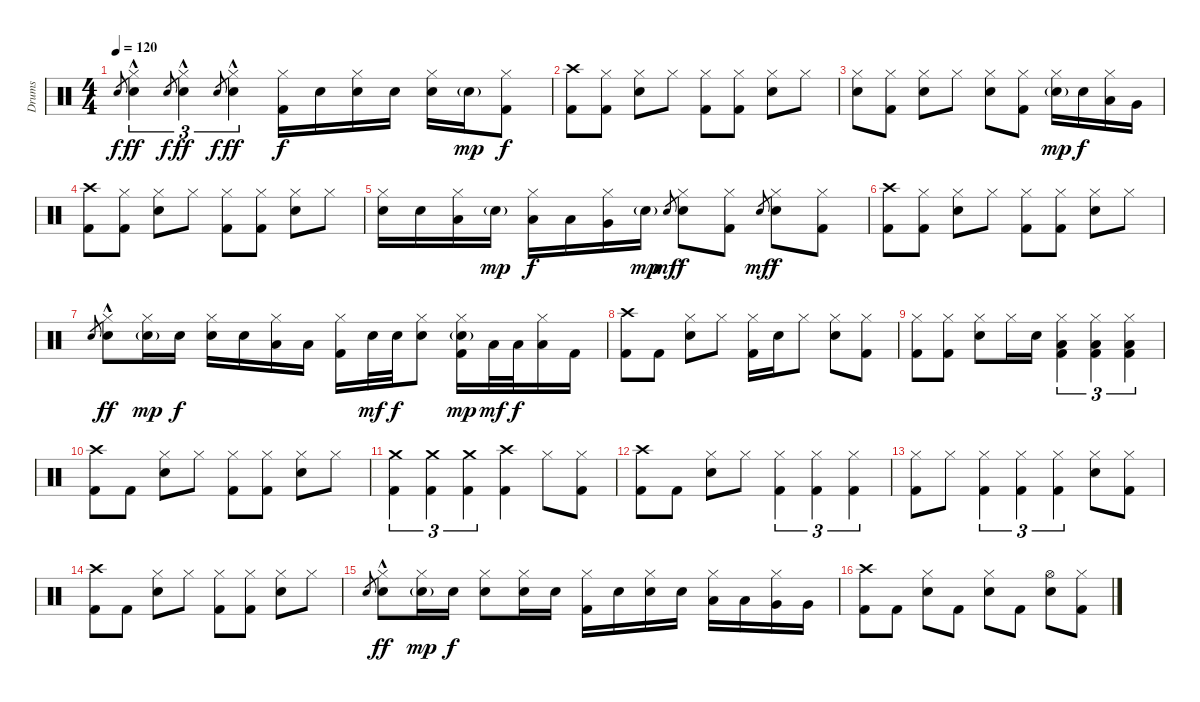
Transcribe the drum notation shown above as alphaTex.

\track ("Drums" "Drums") {instrument percussion}
\staff {score}
\articulation defaults
\ts (4 4)
\tempo 120
\clef neutral
\ks c "Electric Snare (hit)".8{gr dy f}
("Hi-Hat (closed)" "Electric Snare (hit)"{hac}).4{tu (3 2) dy ff} "Electric Snare (hit)".8{gr dy f} ("Hi-Hat (closed)" "Electric Snare (hit)"{hac}).4{tu (3 2) dy ff} "Electric Snare (hit)".8{gr dy f} ("Hi-Hat (closed)" "Electric Snare (hit)"{hac}).4{tu (3 2) dy ff} ("Hi-Hat (closed)" "Kick (hit) 2").16{dy f} "Electric Snare (hit)".16 ("Hi-Hat (closed)" "Electric Snare (hit)").16 "Electric Snare (hit)".16 ("Hi-Hat (closed)" "Electric Snare (hit)").16 "Electric Snare (hit)"{g}.16{dy mp} ("Hi-Hat (closed)" "Kick (hit) 2").8{dy f} |
("Crash high (hit)" "Kick (hit) 2").8 ("Hi-Hat (closed)" "Kick (hit) 2").8 ("Hi-Hat (closed)" "Electric Snare (hit)").8 "Hi-Hat (closed)".8 ("Hi-Hat (closed)" "Kick (hit) 2").8 ("Hi-Hat (closed)" "Kick (hit) 2").8 ("Hi-Hat (closed)" "Electric Snare (hit)").8 "Hi-Hat (closed)".8 |
("Hi-Hat (closed)" "Electric Snare (hit)").8 ("Hi-Hat (closed)" "Kick (hit) 2").8 ("Hi-Hat (closed)" "Electric Snare (hit)").8 "Hi-Hat (closed)".8 ("Hi-Hat (closed)" "Electric Snare (hit)").8 ("Hi-Hat (closed)" "Kick (hit) 2").8 ("Hi-Hat (closed)" "Electric Snare (hit)"{g}).16{dy mp} "Electric Snare (hit)".16{dy f} ("Hi-Hat (closed)" "Low Tom (hit)").16 "Very Low Tom (hit)".16 |
("Crash high (hit)" "Kick (hit) 2").8 ("Hi-Hat (closed)" "Kick (hit) 2").8 ("Hi-Hat (closed)" "Electric Snare (hit)").8 "Hi-Hat (closed)".8 ("Hi-Hat (closed)" "Kick (hit) 2").8 ("Hi-Hat (closed)" "Kick (hit) 2").8 ("Hi-Hat (closed)" "Electric Snare (hit)").8 "Hi-Hat (closed)".8 |
("Hi-Hat (closed)" "Electric Snare (hit)").16 "Electric Snare (hit)".16 ("Hi-Hat (closed)" "Low Tom (hit)").16 "Electric Snare (hit)"{g}.16{dy mp} ("Hi-Hat (closed)" "Low Tom (hit)").16{dy f} "Low Tom (hit)".16 ("Hi-Hat (closed)" "Very Low Tom (hit)").16 "Electric Snare (hit)"{g}.16{dy mp} "Electric Snare (hit)".8{gr dy mf} ("Hi-Hat (closed)" "Electric Snare (hit)").8{dy f} ("Hi-Hat (closed)" "Kick (hit) 2").8 "Electric Snare (hit)".8{gr dy mf} ("Hi-Hat (closed)" "Electric Snare (hit)").8{dy f} ("Hi-Hat (closed)" "Kick (hit) 2").8 |
("Crash high (hit)" "Kick (hit) 2").8 ("Hi-Hat (closed)" "Kick (hit) 2").8 ("Hi-Hat (closed)" "Electric Snare (hit)").8 "Hi-Hat (closed)".8 ("Hi-Hat (closed)" "Kick (hit) 2").8 ("Hi-Hat (closed)" "Kick (hit) 2").8 ("Hi-Hat (closed)" "Electric Snare (hit)").8 "Hi-Hat (closed)".8 |
"Electric Snare (hit)".8{gr} ("Hi-Hat (closed)" "Electric Snare (hit)"{hac}).8{dy ff} ("Hi-Hat (closed)" "Electric Snare (hit)"{g}).16{dy mp} "Electric Snare (hit)".16{dy f} ("Hi-Hat (closed)" "Electric Snare (hit)").16 "Electric Snare (hit)".16 ("Hi-Hat (closed)" "Low Tom (hit)").16 "Low Tom (hit)".16 ("Hi-Hat (closed)" "Kick (hit) 2").16 "Electric Snare (hit)".32{dy mf} "Electric Snare (hit)".32{dy f} ("Hi-Hat (closed)" "Electric Snare (hit)").8 ("Hi-Hat (closed)" "Electric Snare (hit)"{g} "Kick (hit) 2").16{dy mp} "Low Tom (hit)".32{dy mf} "Low Tom (hit)".32{dy f} ("Hi-Hat (closed)" "Low Tom (hit)").16 "Kick (hit) 2".16 |
("Crash high (hit)" "Kick (hit) 2").8 "Kick (hit) 2".8 ("Hi-Hat (closed)" "Electric Snare (hit)").8 "Hi-Hat (closed)".8 ("Hi-Hat (closed)" "Kick (hit) 2").16 "Electric Snare (hit)".16 "Hi-Hat (closed)".8 ("Hi-Hat (closed)" "Electric Snare (hit)").8 ("Hi-Hat (closed)" "Kick (hit) 2").8 |
("Hi-Hat (closed)" "Kick (hit) 2").8 ("Hi-Hat (closed)" "Kick (hit) 2").8 ("Hi-Hat (closed)" "Electric Snare (hit)").8 "Hi-Hat (closed)".16 "Electric Snare (hit)".16 ("Hi-Hat (closed)" "Low Tom (hit)" "Kick (hit) 2").4{tu (3 2)} ("Hi-Hat (closed)" "Low Tom (hit)" "Kick (hit) 2").4{tu (3 2)} ("Hi-Hat (closed)" "Low Tom (hit)" "Kick (hit) 2").4{tu (3 2)} |
("Crash high (hit)" "Kick (hit) 2").8 "Kick (hit) 2".8 ("Hi-Hat (closed)" "Electric Snare (hit)").8 "Hi-Hat (closed)".8 ("Hi-Hat (closed)" "Kick (hit) 2").8 ("Hi-Hat (closed)" "Kick (hit) 2").8 ("Hi-Hat (closed)" "Electric Snare (hit)").8 "Hi-Hat (closed)".8 |
("Crash medium (hit)" "Kick (hit) 2").4{tu (3 2)} ("Crash medium (hit)" "Kick (hit) 2").4{tu (3 2)} ("Crash medium (hit)" "Kick (hit) 2").4{tu (3 2)} ("Crash high (hit)" "Kick (hit) 2").4 "Hi-Hat (closed)".8 ("Hi-Hat (closed)" "Kick (hit) 2").8 |
("Crash high (hit)" "Kick (hit) 2").8 "Kick (hit) 2".8 ("Hi-Hat (closed)" "Electric Snare (hit)").8 "Hi-Hat (closed)".8 ("Hi-Hat (closed)" "Kick (hit) 2").4{tu (3 2)} ("Hi-Hat (closed)" "Kick (hit) 2").4{tu (3 2)} ("Hi-Hat (closed)" "Kick (hit) 2").4{tu (3 2)} |
("Hi-Hat (closed)" "Kick (hit) 2").8 "Hi-Hat (closed)".8 ("Hi-Hat (closed)" "Kick (hit) 2").4{tu (3 2)} ("Hi-Hat (closed)" "Kick (hit) 2").4{tu (3 2)} ("Hi-Hat (closed)" "Kick (hit) 2").4{tu (3 2)} ("Hi-Hat (closed)" "Electric Snare (hit)").8 ("Hi-Hat (closed)" "Kick (hit) 2").8 |
("Crash high (hit)" "Kick (hit) 2").8 "Kick (hit) 2".8 ("Hi-Hat (closed)" "Electric Snare (hit)").8 "Hi-Hat (closed)".8 ("Hi-Hat (closed)" "Kick (hit) 2").8 ("Hi-Hat (closed)" "Kick (hit) 2").8 ("Hi-Hat (closed)" "Electric Snare (hit)").8 "Hi-Hat (closed)".8 |
"Electric Snare (hit)".8{gr} ("Hi-Hat (closed)" "Electric Snare (hit)"{hac}).8{dy ff} ("Hi-Hat (closed)" "Electric Snare (hit)"{g}).16{dy mp} "Electric Snare (hit)".16{dy f} ("Hi-Hat (closed)" "Electric Snare (hit)").8 ("Hi-Hat (closed)" "Electric Snare (hit)").16 "Electric Snare (hit)".16 ("Hi-Hat (closed)" "Kick (hit) 2").16 "Electric Snare (hit)".16 ("Hi-Hat (closed)" "Electric Snare (hit)").16 "Electric Snare (hit)".16 ("Hi-Hat (closed)" "Low Tom (hit)").16 "Low Tom (hit)".16 ("Hi-Hat (closed)" "Very Low Tom (hit)").16 "Very Low Tom (hit)".16 |
("Crash high (hit)" "Kick (hit) 2").8 "Kick (hit) 2".8 ("Hi-Hat (closed)" "Electric Snare (hit)").8 "Kick (hit) 2".8 ("Hi-Hat (closed)" "Electric Snare (hit)").8 "Kick (hit) 2".8 ("Hi-Hat (open)" "Electric Snare (hit)").8 ("Hi-Hat (closed)" "Kick (hit) 2").8
